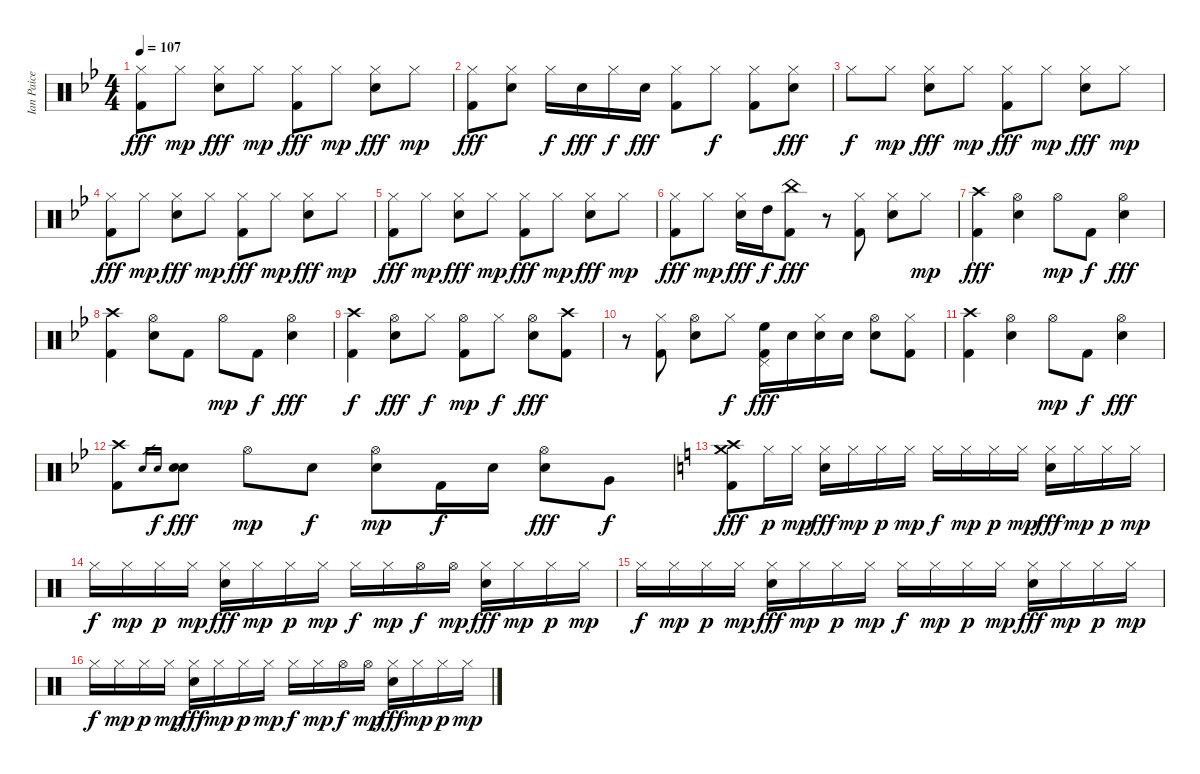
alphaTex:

\track ("Ian Paice" "Ian Paice") {instrument percussion}
\staff {score}
\articulation defaults
\ts (4 4)
\tempo 107
\clef neutral
\ks bb
("Hi-Hat (closed)" "Kick (hit) 2").8{dy fff} "Hi-Hat (closed)".8{dy mp} ("Hi-Hat (closed)" "Electric Snare (hit)").8{dy fff} "Hi-Hat (closed)".8{dy mp} ("Hi-Hat (closed)" "Kick (hit) 2").8{dy fff} "Hi-Hat (closed)".8{dy mp} ("Hi-Hat (closed)" "Electric Snare (hit)").8{dy fff} "Hi-Hat (closed)".8{dy mp} |
("Hi-Hat (closed)" "Kick (hit) 2").8{dy fff} ("Hi-Hat (closed)" "Electric Snare (hit)").8 "Hi-Hat (closed)".16{dy f} "Electric Snare (hit)".16{dy fff} "Hi-Hat (closed)".16{dy f} "Electric Snare (hit)".16{dy fff} ("Hi-Hat (closed)" "Kick (hit) 2").8 "Hi-Hat (closed)".8{dy f} ("Hi-Hat (closed)" "Kick (hit) 2").8 ("Hi-Hat (closed)" "Electric Snare (hit)").8{dy fff} |
"Hi-Hat (closed)".8{dy f} "Hi-Hat (closed)".8{dy mp} ("Hi-Hat (closed)" "Electric Snare (hit)").8{dy fff} "Hi-Hat (closed)".8{dy mp} ("Hi-Hat (closed)" "Kick (hit) 2").8{dy fff} "Hi-Hat (closed)".8{dy mp} ("Hi-Hat (closed)" "Electric Snare (hit)").8{dy fff} "Hi-Hat (closed)".8{dy mp} |
("Hi-Hat (closed)" "Kick (hit) 2").8{dy fff} "Hi-Hat (closed)".8{dy mp} ("Hi-Hat (closed)" "Electric Snare (hit)").8{dy fff} "Hi-Hat (closed)".8{dy mp} ("Hi-Hat (closed)" "Kick (hit) 2").8{dy fff} "Hi-Hat (closed)".8{dy mp} ("Hi-Hat (closed)" "Electric Snare (hit)").8{dy fff} "Hi-Hat (closed)".8{dy mp} |
("Hi-Hat (closed)" "Kick (hit) 2").8{dy fff} "Hi-Hat (closed)".8{dy mp} ("Hi-Hat (closed)" "Electric Snare (hit)").8{dy fff} "Hi-Hat (closed)".8{dy mp} ("Hi-Hat (closed)" "Kick (hit) 2").8{dy fff} "Hi-Hat (closed)".8{dy mp} ("Hi-Hat (closed)" "Electric Snare (hit)").8{dy fff} "Hi-Hat (closed)".8{dy mp} |
("Hi-Hat (closed)" "Kick (hit) 2").8{dy fff} "Hi-Hat (closed)".8{dy mp} ("Hi-Hat (closed)" "Electric Snare (hit)").16{dy fff} "High Tom (hit)".16{dy f} ("China (hit)" "Kick (hit) 2").8{dy fff} r.8 ("Hi-Hat (closed)" "Kick (hit) 2").8 ("Hi-Hat (closed)" "Electric Snare (hit)").8 "Hi-Hat (closed)".8{dy mp} |
("Crash high (hit)" "Kick (hit) 2").4{dy fff} ("Hi-Hat (open)" "Electric Snare (hit)").4 "Hi-Hat (open)".8{dy mp} "Kick (hit) 2".8{dy f} ("Hi-Hat (open)" "Electric Snare (hit)").4{dy fff} |
("Crash high (hit)" "Kick (hit) 2").4 ("Hi-Hat (open)" "Electric Snare (hit)").8 "Kick (hit) 2".8 "Hi-Hat (open)".8{dy mp} "Kick (hit) 2".8{dy f} ("Hi-Hat (open)" "Electric Snare (hit)").4{dy fff} |
("Crash high (hit)" "Kick (hit) 2").4{dy f} ("Hi-Hat (open)" "Electric Snare (hit)").8{dy fff} "Hi-Hat (closed)".8{dy f} ("Hi-Hat (open)" "Kick (hit) 2").8{dy mp} "Hi-Hat (closed)".8{dy f} ("Hi-Hat (open)" "Electric Snare (hit)").8{dy fff} ("Crash high (hit)" "Kick (hit) 2").8 |
r.8 ("Hi-Hat (closed)" "Kick (hit) 2").8 ("Hi-Hat (open)" "Electric Snare (hit)").8 "Hi-Hat (closed)".8{dy f} ("Pedal Hi-Hat (hit)" "High Floor Tom (hit)" "Kick (hit) 2").16{dy fff} "Electric Snare (hit)".16 ("Hi-Hat (closed)" "Electric Snare (hit)").16 "Electric Snare (hit)".16 ("Hi-Hat (open)" "Electric Snare (hit)").8 ("Hi-Hat (closed)" "Kick (hit) 2").8 |
("Crash high (hit)" "Kick (hit) 2").4 ("Hi-Hat (open)" "Electric Snare (hit)").4 "Hi-Hat (open)".8{dy mp} "Kick (hit) 2".8{dy f} ("Hi-Hat (open)" "Electric Snare (hit)").4{dy fff} |
("Crash high (hit)" "Kick (hit) 2").8 "Electric Snare (hit)".16{gr} "Electric Snare (hit)".16{gr dy f} ("Electric Snare (hit)" "Electric Snare (hit)").8{dy fff} "Hi-Hat (open)".8{dy mp} "Electric Snare (hit)".8{dy f} ("Hi-Hat (open)" "Electric Snare (hit)").8{dy mp} "Kick (hit) 2".16{dy f} "Electric Snare (hit)".16 ("Hi-Hat (open)" "Electric Snare (hit)").8{dy fff} "Very Low Tom (hit)".8{dy f} |
\ks c
("Crash medium (hit)" "Crash high (hit)" "Kick (hit) 2").8{dy fff} "Hi-Hat (closed)".16{dy p} "Hi-Hat (closed)".16{dy mp} ("Hi-Hat (closed)" "Electric Snare (hit)").16{dy fff} "Hi-Hat (closed)".16{dy mp} "Hi-Hat (closed)".16{dy p} "Hi-Hat (closed)".16{dy mp} "Hi-Hat (closed)".16{dy f} "Hi-Hat (closed)".16{dy mp} "Hi-Hat (closed)".16{dy p} "Hi-Hat (closed)".16{dy mp} ("Hi-Hat (closed)" "Electric Snare (hit)").16{dy fff} "Hi-Hat (closed)".16{dy mp} "Hi-Hat (closed)".16{dy p} "Hi-Hat (closed)".16{dy mp} |
"Hi-Hat (closed)".16{dy f} "Hi-Hat (closed)".16{dy mp} "Hi-Hat (closed)".16{dy p} "Hi-Hat (closed)".16{dy mp} ("Hi-Hat (closed)" "Electric Snare (hit)").16{dy fff} "Hi-Hat (closed)".16{dy mp} "Hi-Hat (closed)".16{dy p} "Hi-Hat (closed)".16{dy mp} "Hi-Hat (closed)".16{dy f} "Hi-Hat (closed)".16{dy mp} "Hi-Hat (open)".16{dy f} "Hi-Hat (open)".16{dy mp} ("Hi-Hat (closed)" "Electric Snare (hit)").16{dy fff} "Hi-Hat (closed)".16{dy mp} "Hi-Hat (closed)".16{dy p} "Hi-Hat (closed)".16{dy mp} |
"Hi-Hat (closed)".16{dy f} "Hi-Hat (closed)".16{dy mp} "Hi-Hat (closed)".16{dy p} "Hi-Hat (closed)".16{dy mp} ("Hi-Hat (closed)" "Electric Snare (hit)").16{dy fff} "Hi-Hat (closed)".16{dy mp} "Hi-Hat (closed)".16{dy p} "Hi-Hat (closed)".16{dy mp} "Hi-Hat (closed)".16{dy f} "Hi-Hat (closed)".16{dy mp} "Hi-Hat (closed)".16{dy p} "Hi-Hat (closed)".16{dy mp} ("Hi-Hat (closed)" "Electric Snare (hit)").16{dy fff} "Hi-Hat (closed)".16{dy mp} "Hi-Hat (closed)".16{dy p} "Hi-Hat (closed)".16{dy mp} |
"Hi-Hat (closed)".16{dy f} "Hi-Hat (closed)".16{dy mp} "Hi-Hat (closed)".16{dy p} "Hi-Hat (closed)".16{dy mp} ("Hi-Hat (closed)" "Electric Snare (hit)").16{dy fff} "Hi-Hat (closed)".16{dy mp} "Hi-Hat (closed)".16{dy p} "Hi-Hat (closed)".16{dy mp} "Hi-Hat (closed)".16{dy f} "Hi-Hat (closed)".16{dy mp} "Hi-Hat (open)".16{dy f} "Hi-Hat (open)".16{dy mp} ("Hi-Hat (closed)" "Electric Snare (hit)").16{dy fff} "Hi-Hat (closed)".16{dy mp} "Hi-Hat (closed)".16{dy p} "Hi-Hat (closed)".16{dy mp}
